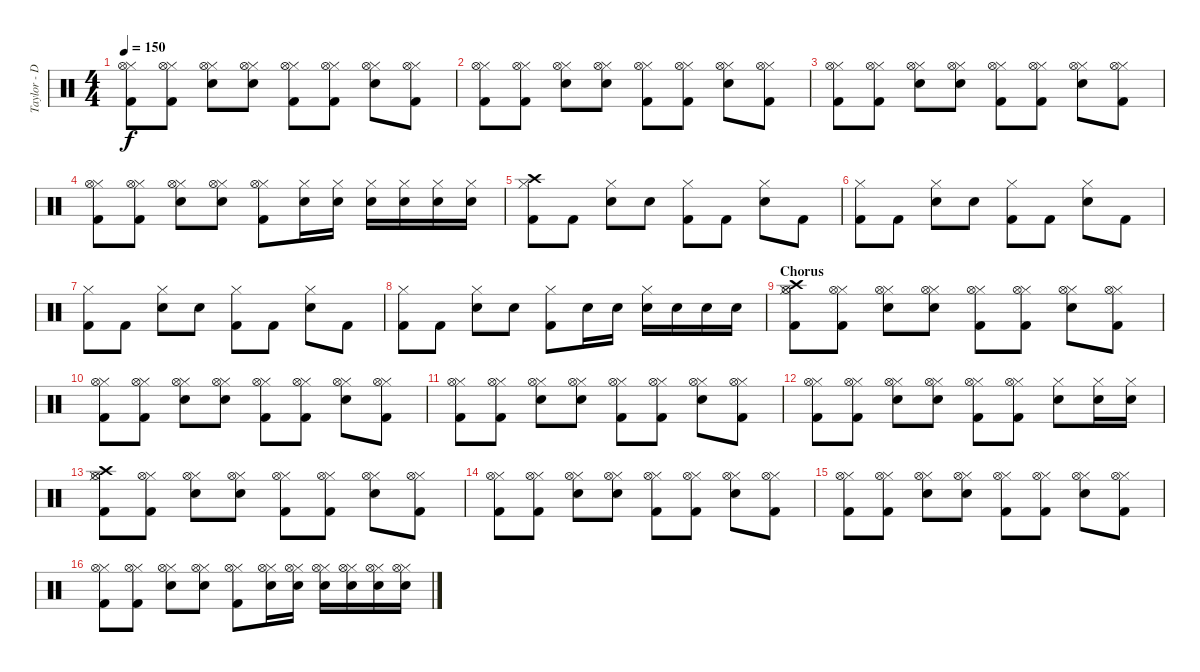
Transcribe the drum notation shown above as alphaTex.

\track ("Taylor - Drums" "Taylor - D") {instrument percussion}
\staff {score}
\articulation defaults
\ts (4 4)
\tempo 150
\clef neutral
\ks c
("Kick (hit) 2" "Hi-Hat (closed)" "Hi-Hat (open)").8{dy f} ("Kick (hit) 2" "Hi-Hat (closed)" "Hi-Hat (open)").8 ("Snare (hit) 2" "Hi-Hat (closed)" "Hi-Hat (open)").8 ("Snare (hit) 2" "Hi-Hat (closed)" "Hi-Hat (open)").8 ("Kick (hit) 2" "Hi-Hat (closed)" "Hi-Hat (open)").8 ("Kick (hit) 2" "Hi-Hat (closed)" "Hi-Hat (open)").8 ("Snare (hit) 2" "Hi-Hat (closed)" "Hi-Hat (open)").8 ("Kick (hit) 2" "Hi-Hat (closed)" "Hi-Hat (open)").8 |
("Kick (hit) 2" "Hi-Hat (closed)" "Hi-Hat (open)").8 ("Kick (hit) 2" "Hi-Hat (closed)" "Hi-Hat (open)").8 ("Snare (hit) 2" "Hi-Hat (closed)" "Hi-Hat (open)").8 ("Snare (hit) 2" "Hi-Hat (closed)" "Hi-Hat (open)").8 ("Kick (hit) 2" "Hi-Hat (closed)" "Hi-Hat (open)").8 ("Kick (hit) 2" "Hi-Hat (closed)" "Hi-Hat (open)").8 ("Snare (hit) 2" "Hi-Hat (closed)" "Hi-Hat (open)").8 ("Kick (hit) 2" "Hi-Hat (closed)" "Hi-Hat (open)").8 |
("Kick (hit) 2" "Hi-Hat (closed)" "Hi-Hat (open)").8 ("Kick (hit) 2" "Hi-Hat (closed)" "Hi-Hat (open)").8 ("Snare (hit) 2" "Hi-Hat (closed)" "Hi-Hat (open)").8 ("Snare (hit) 2" "Hi-Hat (closed)" "Hi-Hat (open)").8 ("Kick (hit) 2" "Hi-Hat (closed)" "Hi-Hat (open)").8 ("Kick (hit) 2" "Hi-Hat (closed)" "Hi-Hat (open)").8 ("Snare (hit) 2" "Hi-Hat (closed)" "Hi-Hat (open)").8 ("Kick (hit) 2" "Hi-Hat (closed)" "Hi-Hat (open)").8 |
("Kick (hit) 2" "Hi-Hat (closed)" "Hi-Hat (open)").8 ("Kick (hit) 2" "Hi-Hat (closed)" "Hi-Hat (open)").8 ("Snare (hit) 2" "Hi-Hat (closed)" "Hi-Hat (open)").8 ("Snare (hit) 2" "Hi-Hat (closed)" "Hi-Hat (open)").8 ("Kick (hit) 2" "Hi-Hat (closed)" "Hi-Hat (open)").8 ("Snare (hit) 2" "Hi-Hat (closed)").16 ("Snare (hit) 2" "Hi-Hat (closed)").16 ("Snare (hit) 2" "Hi-Hat (closed)").16 ("Snare (hit) 2" "Hi-Hat (closed)").16 ("Snare (hit) 2" "Hi-Hat (closed)").16 ("Snare (hit) 2" "Hi-Hat (closed)").16 |
("Kick (hit) 2" "Hi-Hat (closed)" "Crash high (hit)").8 "Kick (hit) 2".8 ("Snare (hit) 2" "Hi-Hat (closed)").8 "Snare (hit) 2".8 ("Kick (hit) 2" "Hi-Hat (closed)").8 "Kick (hit) 2".8 ("Snare (hit) 2" "Hi-Hat (closed)").8 "Kick (hit) 2".8 |
("Kick (hit) 2" "Hi-Hat (closed)").8 "Kick (hit) 2".8 ("Snare (hit) 2" "Hi-Hat (closed)").8 "Snare (hit) 2".8 ("Kick (hit) 2" "Hi-Hat (closed)").8 "Kick (hit) 2".8 ("Snare (hit) 2" "Hi-Hat (closed)").8 "Kick (hit) 2".8 |
("Kick (hit) 2" "Hi-Hat (closed)").8 "Kick (hit) 2".8 ("Snare (hit) 2" "Hi-Hat (closed)").8 "Snare (hit) 2".8 ("Kick (hit) 2" "Hi-Hat (closed)").8 "Kick (hit) 2".8 ("Snare (hit) 2" "Hi-Hat (closed)").8 "Kick (hit) 2".8 |
("Kick (hit) 2" "Hi-Hat (closed)").8 "Kick (hit) 2".8 ("Snare (hit) 2" "Hi-Hat (closed)").8 "Snare (hit) 2".8 ("Kick (hit) 2" "Hi-Hat (closed)").8 "Snare (hit) 2".16 "Snare (hit) 2".16 ("Snare (hit) 2" "Hi-Hat (closed)").16 "Snare (hit) 2".16 "Snare (hit) 2".16 "Snare (hit) 2".16 |
\section ("" "Chorus")
("Kick (hit) 2" "Hi-Hat (closed)" "Hi-Hat (open)" "Crash high (hit)").8 ("Kick (hit) 2" "Hi-Hat (closed)" "Hi-Hat (open)").8 ("Snare (hit) 2" "Hi-Hat (closed)" "Hi-Hat (open)").8 ("Snare (hit) 2" "Hi-Hat (closed)" "Hi-Hat (open)").8 ("Kick (hit) 2" "Hi-Hat (closed)" "Hi-Hat (open)").8 ("Kick (hit) 2" "Hi-Hat (closed)" "Hi-Hat (open)").8 ("Snare (hit) 2" "Hi-Hat (closed)" "Hi-Hat (open)").8 ("Kick (hit) 2" "Hi-Hat (closed)" "Hi-Hat (open)").8 |
("Kick (hit) 2" "Hi-Hat (closed)" "Hi-Hat (open)").8 ("Kick (hit) 2" "Hi-Hat (closed)" "Hi-Hat (open)").8 ("Snare (hit) 2" "Hi-Hat (closed)" "Hi-Hat (open)").8 ("Snare (hit) 2" "Hi-Hat (closed)" "Hi-Hat (open)").8 ("Kick (hit) 2" "Hi-Hat (closed)" "Hi-Hat (open)").8 ("Kick (hit) 2" "Hi-Hat (closed)" "Hi-Hat (open)").8 ("Snare (hit) 2" "Hi-Hat (closed)" "Hi-Hat (open)").8 ("Kick (hit) 2" "Hi-Hat (closed)" "Hi-Hat (open)").8 |
("Kick (hit) 2" "Hi-Hat (closed)" "Hi-Hat (open)").8 ("Kick (hit) 2" "Hi-Hat (closed)" "Hi-Hat (open)").8 ("Snare (hit) 2" "Hi-Hat (closed)" "Hi-Hat (open)").8 ("Snare (hit) 2" "Hi-Hat (closed)" "Hi-Hat (open)").8 ("Kick (hit) 2" "Hi-Hat (closed)" "Hi-Hat (open)").8 ("Kick (hit) 2" "Hi-Hat (closed)" "Hi-Hat (open)").8 ("Snare (hit) 2" "Hi-Hat (closed)" "Hi-Hat (open)").8 ("Kick (hit) 2" "Hi-Hat (closed)" "Hi-Hat (open)").8 |
("Kick (hit) 2" "Hi-Hat (closed)" "Hi-Hat (open)").8 ("Kick (hit) 2" "Hi-Hat (closed)" "Hi-Hat (open)").8 ("Snare (hit) 2" "Hi-Hat (closed)" "Hi-Hat (open)").8 ("Snare (hit) 2" "Hi-Hat (closed)" "Hi-Hat (open)").8 ("Kick (hit) 2" "Hi-Hat (closed)" "Hi-Hat (open)").8 ("Kick (hit) 2" "Hi-Hat (closed)" "Hi-Hat (open)").8 ("Snare (hit) 2" "Hi-Hat (closed)").8 ("Snare (hit) 2" "Hi-Hat (closed)").16 ("Snare (hit) 2" "Hi-Hat (closed)").16 |
("Kick (hit) 2" "Hi-Hat (closed)" "Hi-Hat (open)" "Crash high (hit)").8 ("Kick (hit) 2" "Hi-Hat (closed)" "Hi-Hat (open)").8 ("Snare (hit) 2" "Hi-Hat (closed)" "Hi-Hat (open)").8 ("Snare (hit) 2" "Hi-Hat (closed)" "Hi-Hat (open)").8 ("Kick (hit) 2" "Hi-Hat (closed)" "Hi-Hat (open)").8 ("Kick (hit) 2" "Hi-Hat (closed)" "Hi-Hat (open)").8 ("Snare (hit) 2" "Hi-Hat (closed)" "Hi-Hat (open)").8 ("Kick (hit) 2" "Hi-Hat (closed)" "Hi-Hat (open)").8 |
("Kick (hit) 2" "Hi-Hat (closed)" "Hi-Hat (open)").8 ("Kick (hit) 2" "Hi-Hat (closed)" "Hi-Hat (open)").8 ("Snare (hit) 2" "Hi-Hat (closed)" "Hi-Hat (open)").8 ("Snare (hit) 2" "Hi-Hat (closed)" "Hi-Hat (open)").8 ("Kick (hit) 2" "Hi-Hat (closed)" "Hi-Hat (open)").8 ("Kick (hit) 2" "Hi-Hat (closed)" "Hi-Hat (open)").8 ("Snare (hit) 2" "Hi-Hat (closed)" "Hi-Hat (open)").8 ("Kick (hit) 2" "Hi-Hat (closed)" "Hi-Hat (open)").8 |
("Kick (hit) 2" "Hi-Hat (closed)" "Hi-Hat (open)").8 ("Kick (hit) 2" "Hi-Hat (closed)" "Hi-Hat (open)").8 ("Snare (hit) 2" "Hi-Hat (closed)" "Hi-Hat (open)").8 ("Snare (hit) 2" "Hi-Hat (closed)" "Hi-Hat (open)").8 ("Kick (hit) 2" "Hi-Hat (closed)" "Hi-Hat (open)").8 ("Kick (hit) 2" "Hi-Hat (closed)" "Hi-Hat (open)").8 ("Snare (hit) 2" "Hi-Hat (closed)" "Hi-Hat (open)").8 ("Kick (hit) 2" "Hi-Hat (closed)" "Hi-Hat (open)").8 |
("Kick (hit) 2" "Hi-Hat (closed)" "Hi-Hat (open)").8 ("Kick (hit) 2" "Hi-Hat (closed)" "Hi-Hat (open)").8 ("Snare (hit) 2" "Hi-Hat (closed)" "Hi-Hat (open)").8 ("Snare (hit) 2" "Hi-Hat (closed)" "Hi-Hat (open)").8 ("Kick (hit) 2" "Hi-Hat (closed)" "Hi-Hat (open)").8 ("Snare (hit) 2" "Hi-Hat (closed)" "Hi-Hat (open)").16 ("Snare (hit) 2" "Hi-Hat (closed)" "Hi-Hat (open)").16 ("Snare (hit) 2" "Hi-Hat (closed)" "Hi-Hat (open)").16 ("Snare (hit) 2" "Hi-Hat (closed)" "Hi-Hat (open)").16 ("Snare (hit) 2" "Hi-Hat (closed)" "Hi-Hat (open)").16 ("Snare (hit) 2" "Hi-Hat (closed)" "Hi-Hat (open)").16
